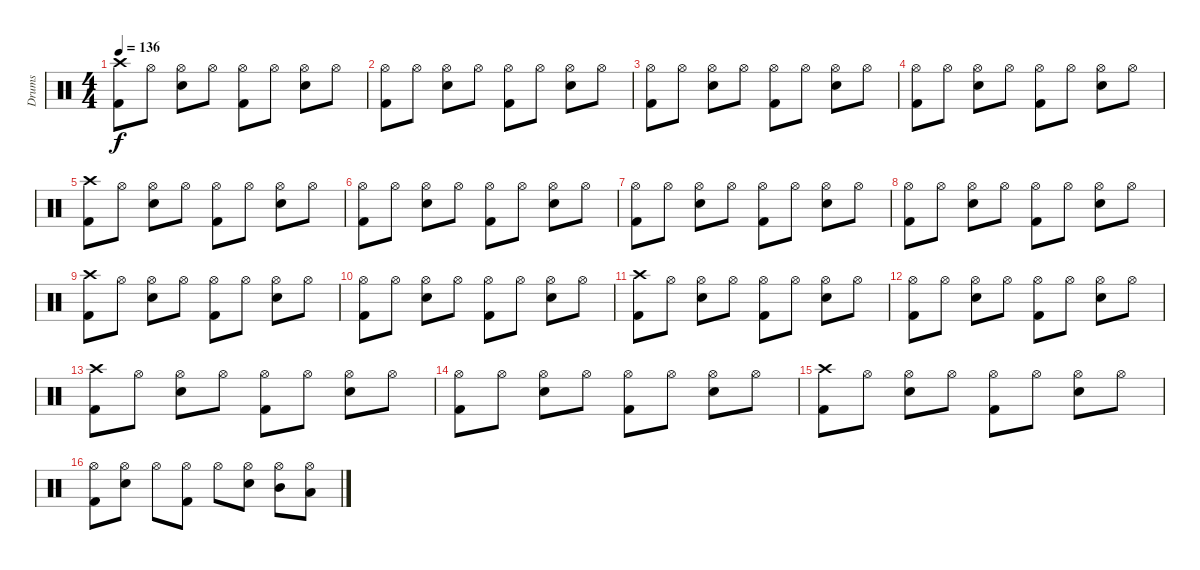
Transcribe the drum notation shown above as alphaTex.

\track ("Drums" "Drums") {instrument percussion}
\staff {score}
\articulation defaults
\ts (4 4)
\tempo 136
\clef neutral
\ks c
("Crash high (hit)" "Kick (hit) 2").8{dy f} "Hi-Hat (open)".8 ("Hi-Hat (open)" "Snare (hit) 2").8 "Hi-Hat (open)".8 ("Hi-Hat (open)" "Kick (hit) 2").8 "Hi-Hat (open)".8 ("Hi-Hat (open)" "Snare (hit) 2").8 "Hi-Hat (open)".8 |
("Hi-Hat (open)" "Kick (hit) 2").8 "Hi-Hat (open)".8 ("Hi-Hat (open)" "Snare (hit) 2").8 "Hi-Hat (open)".8 ("Hi-Hat (open)" "Kick (hit) 2").8 "Hi-Hat (open)".8 ("Hi-Hat (open)" "Snare (hit) 2").8 "Hi-Hat (open)".8 |
("Hi-Hat (open)" "Kick (hit) 2").8 "Hi-Hat (open)".8 ("Hi-Hat (open)" "Snare (hit) 2").8 "Hi-Hat (open)".8 ("Hi-Hat (open)" "Kick (hit) 2").8 "Hi-Hat (open)".8 ("Hi-Hat (open)" "Snare (hit) 2").8 "Hi-Hat (open)".8 |
("Hi-Hat (open)" "Kick (hit) 2").8 "Hi-Hat (open)".8 ("Hi-Hat (open)" "Snare (hit) 2").8 "Hi-Hat (open)".8 ("Hi-Hat (open)" "Kick (hit) 2").8 "Hi-Hat (open)".8 ("Hi-Hat (open)" "Snare (hit) 2").8 "Hi-Hat (open)".8 |
("Crash high (hit)" "Kick (hit) 2").8 "Hi-Hat (open)".8 ("Hi-Hat (open)" "Snare (hit) 2").8 "Hi-Hat (open)".8 ("Hi-Hat (open)" "Kick (hit) 2").8 "Hi-Hat (open)".8 ("Hi-Hat (open)" "Snare (hit) 2").8 "Hi-Hat (open)".8 |
("Hi-Hat (open)" "Kick (hit) 2").8 "Hi-Hat (open)".8 ("Hi-Hat (open)" "Snare (hit) 2").8 "Hi-Hat (open)".8 ("Hi-Hat (open)" "Kick (hit) 2").8 "Hi-Hat (open)".8 ("Hi-Hat (open)" "Snare (hit) 2").8 "Hi-Hat (open)".8 |
("Hi-Hat (open)" "Kick (hit) 2").8 "Hi-Hat (open)".8 ("Hi-Hat (open)" "Snare (hit) 2").8 "Hi-Hat (open)".8 ("Hi-Hat (open)" "Kick (hit) 2").8 "Hi-Hat (open)".8 ("Hi-Hat (open)" "Snare (hit) 2").8 "Hi-Hat (open)".8 |
("Hi-Hat (open)" "Kick (hit) 2").8 "Hi-Hat (open)".8 ("Hi-Hat (open)" "Snare (hit) 2").8 "Hi-Hat (open)".8 ("Hi-Hat (open)" "Kick (hit) 2").8 "Hi-Hat (open)".8 ("Hi-Hat (open)" "Snare (hit) 2").8 "Hi-Hat (open)".8 |
("Crash high (hit)" "Kick (hit) 2").8 "Hi-Hat (open)".8 ("Hi-Hat (open)" "Snare (hit) 2").8 "Hi-Hat (open)".8 ("Hi-Hat (open)" "Kick (hit) 2").8 "Hi-Hat (open)".8 ("Hi-Hat (open)" "Snare (hit) 2").8 "Hi-Hat (open)".8 |
("Hi-Hat (open)" "Kick (hit) 2").8 "Hi-Hat (open)".8 ("Hi-Hat (open)" "Snare (hit) 2").8 "Hi-Hat (open)".8 ("Hi-Hat (open)" "Kick (hit) 2").8 "Hi-Hat (open)".8 ("Hi-Hat (open)" "Snare (hit) 2").8 "Hi-Hat (open)".8 |
("Crash high (hit)" "Kick (hit) 2").8 "Hi-Hat (open)".8 ("Hi-Hat (open)" "Snare (hit) 2").8 "Hi-Hat (open)".8 ("Hi-Hat (open)" "Kick (hit) 2").8 "Hi-Hat (open)".8 ("Hi-Hat (open)" "Snare (hit) 2").8 "Hi-Hat (open)".8 |
("Hi-Hat (open)" "Kick (hit) 2").8 "Hi-Hat (open)".8 ("Hi-Hat (open)" "Snare (hit) 2").8 "Hi-Hat (open)".8 ("Hi-Hat (open)" "Kick (hit) 2").8 "Hi-Hat (open)".8 ("Hi-Hat (open)" "Snare (hit) 2").8 "Hi-Hat (open)".8 |
("Crash high (hit)" "Kick (hit) 2").8 "Hi-Hat (open)".8 ("Hi-Hat (open)" "Snare (hit) 2").8 "Hi-Hat (open)".8 ("Hi-Hat (open)" "Kick (hit) 2").8 "Hi-Hat (open)".8 ("Hi-Hat (open)" "Snare (hit) 2").8 "Hi-Hat (open)".8 |
("Hi-Hat (open)" "Kick (hit) 2").8 "Hi-Hat (open)".8 ("Hi-Hat (open)" "Snare (hit) 2").8 "Hi-Hat (open)".8 ("Hi-Hat (open)" "Kick (hit) 2").8 "Hi-Hat (open)".8 ("Hi-Hat (open)" "Snare (hit) 2").8 "Hi-Hat (open)".8 |
("Crash high (hit)" "Kick (hit) 2").8 "Hi-Hat (open)".8 ("Hi-Hat (open)" "Snare (hit) 2").8 "Hi-Hat (open)".8 ("Hi-Hat (open)" "Kick (hit) 2").8 "Hi-Hat (open)".8 ("Hi-Hat (open)" "Snare (hit) 2").8 "Hi-Hat (open)".8 |
("Hi-Hat (open)" "Kick (hit) 2").8 ("Hi-Hat (open)" "Snare (hit) 2").8 "Hi-Hat (open)".8 ("Hi-Hat (open)" "Kick (hit) 2").8 "Hi-Hat (open)".8 ("Hi-Hat (open)" "Snare (hit) 2").8 ("Hi-Hat (open)" "Mid Tom (hit)").8 ("Hi-Hat (open)" "Low Tom (hit)").8
